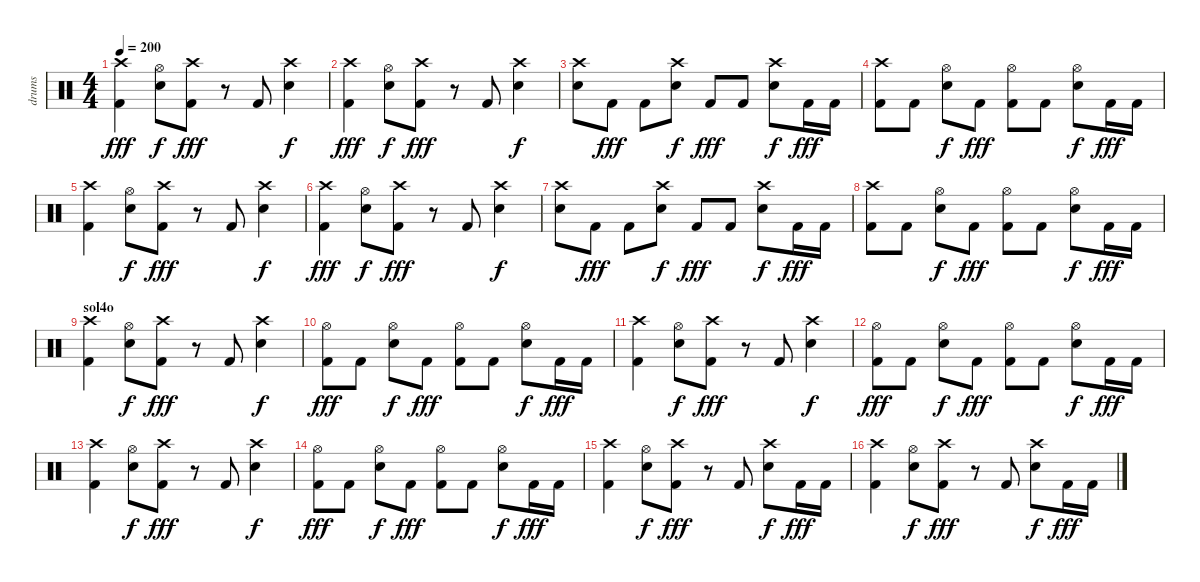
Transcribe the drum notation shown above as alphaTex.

\track ("drums" "drums") {instrument percussion}
\staff {score}
\articulation defaults
\ts (4 4)
\tempo 200
\clef neutral
\ks c
("Crash high (hit)" "Kick (hit) 2").4{dy fff} ("Hi-Hat (open)" "Snare (hit) 2").8{dy f} ("Crash high (hit)" "Kick (hit) 2").8{dy fff} r.8 "Kick (hit) 2".8 ("Crash high (hit)" "Snare (hit) 2").4{dy f} |
("Crash high (hit)" "Kick (hit) 2").4{dy fff} ("Hi-Hat (open)" "Snare (hit) 2").8{dy f} ("Crash high (hit)" "Kick (hit) 2").8{dy fff} r.8 "Kick (hit) 2".8 ("Crash high (hit)" "Snare (hit) 2").4{dy f} |
("Crash high (hit)" "Snare (hit) 2").8 "Kick (hit) 2".8{dy fff} "Kick (hit) 2".8 ("Crash high (hit)" "Snare (hit) 2").8{dy f} "Kick (hit) 2".8{dy fff} "Kick (hit) 2".8 ("Crash high (hit)" "Snare (hit) 2").8{dy f} "Kick (hit) 2".16{dy fff} "Kick (hit) 2".16 |
("Crash high (hit)" "Kick (hit) 2").8 "Kick (hit) 2".8 ("Hi-Hat (open)" "Snare (hit) 2").8{dy f} "Kick (hit) 2".8{dy fff} ("Hi-Hat (open)" "Kick (hit) 2").8 "Kick (hit) 2".8 ("Hi-Hat (open)" "Snare (hit) 2").8{dy f} "Kick (hit) 2".16{dy fff} "Kick (hit) 2".16 |
("Crash high (hit)" "Kick (hit) 2").4 ("Hi-Hat (open)" "Snare (hit) 2").8{dy f} ("Crash high (hit)" "Kick (hit) 2").8{dy fff} r.8 "Kick (hit) 2".8 ("Crash high (hit)" "Snare (hit) 2").4{dy f} |
("Crash high (hit)" "Kick (hit) 2").4{dy fff} ("Hi-Hat (open)" "Snare (hit) 2").8{dy f} ("Crash high (hit)" "Kick (hit) 2").8{dy fff} r.8 "Kick (hit) 2".8 ("Crash high (hit)" "Snare (hit) 2").4{dy f} |
("Crash high (hit)" "Snare (hit) 2").8 "Kick (hit) 2".8{dy fff} "Kick (hit) 2".8 ("Crash high (hit)" "Snare (hit) 2").8{dy f} "Kick (hit) 2".8{dy fff} "Kick (hit) 2".8 ("Crash high (hit)" "Snare (hit) 2").8{dy f} "Kick (hit) 2".16{dy fff} "Kick (hit) 2".16 |
("Crash high (hit)" "Kick (hit) 2").8 "Kick (hit) 2".8 ("Hi-Hat (open)" "Snare (hit) 2").8{dy f} "Kick (hit) 2".8{dy fff} ("Hi-Hat (open)" "Kick (hit) 2").8 "Kick (hit) 2".8 ("Hi-Hat (open)" "Snare (hit) 2").8{dy f} "Kick (hit) 2".16{dy fff} "Kick (hit) 2".16 |
\section ("" "sol4o")
("Crash high (hit)" "Kick (hit) 2").4 ("Hi-Hat (open)" "Snare (hit) 2").8{dy f} ("Crash high (hit)" "Kick (hit) 2").8{dy fff} r.8 "Kick (hit) 2".8 ("Crash high (hit)" "Snare (hit) 2").4{dy f} |
("Hi-Hat (open)" "Kick (hit) 2").8{dy fff} "Kick (hit) 2".8 ("Hi-Hat (open)" "Snare (hit) 2").8{dy f} "Kick (hit) 2".8{dy fff} ("Hi-Hat (open)" "Kick (hit) 2").8 "Kick (hit) 2".8 ("Hi-Hat (open)" "Snare (hit) 2").8{dy f} "Kick (hit) 2".16{dy fff} "Kick (hit) 2".16 |
("Crash high (hit)" "Kick (hit) 2").4 ("Hi-Hat (open)" "Snare (hit) 2").8{dy f} ("Crash high (hit)" "Kick (hit) 2").8{dy fff} r.8 "Kick (hit) 2".8 ("Crash high (hit)" "Snare (hit) 2").4{dy f} |
("Hi-Hat (open)" "Kick (hit) 2").8{dy fff} "Kick (hit) 2".8 ("Hi-Hat (open)" "Snare (hit) 2").8{dy f} "Kick (hit) 2".8{dy fff} ("Hi-Hat (open)" "Kick (hit) 2").8 "Kick (hit) 2".8 ("Hi-Hat (open)" "Snare (hit) 2").8{dy f} "Kick (hit) 2".16{dy fff} "Kick (hit) 2".16 |
("Crash high (hit)" "Kick (hit) 2").4 ("Hi-Hat (open)" "Snare (hit) 2").8{dy f} ("Crash high (hit)" "Kick (hit) 2").8{dy fff} r.8 "Kick (hit) 2".8 ("Crash high (hit)" "Snare (hit) 2").4{dy f} |
("Hi-Hat (open)" "Kick (hit) 2").8{dy fff} "Kick (hit) 2".8 ("Hi-Hat (open)" "Snare (hit) 2").8{dy f} "Kick (hit) 2".8{dy fff} ("Hi-Hat (open)" "Kick (hit) 2").8 "Kick (hit) 2".8 ("Hi-Hat (open)" "Snare (hit) 2").8{dy f} "Kick (hit) 2".16{dy fff} "Kick (hit) 2".16 |
("Crash high (hit)" "Kick (hit) 2").4 ("Hi-Hat (open)" "Snare (hit) 2").8{dy f} ("Crash high (hit)" "Kick (hit) 2").8{dy fff} r.8 "Kick (hit) 2".8 ("Crash high (hit)" "Snare (hit) 2").8{dy f} "Kick (hit) 2".16{dy fff} "Kick (hit) 2".16 |
("Crash high (hit)" "Kick (hit) 2").4 ("Hi-Hat (open)" "Snare (hit) 2").8{dy f} ("Crash high (hit)" "Kick (hit) 2").8{dy fff} r.8 "Kick (hit) 2".8 ("Crash high (hit)" "Snare (hit) 2").8{dy f} "Kick (hit) 2".16{dy fff} "Kick (hit) 2".16
